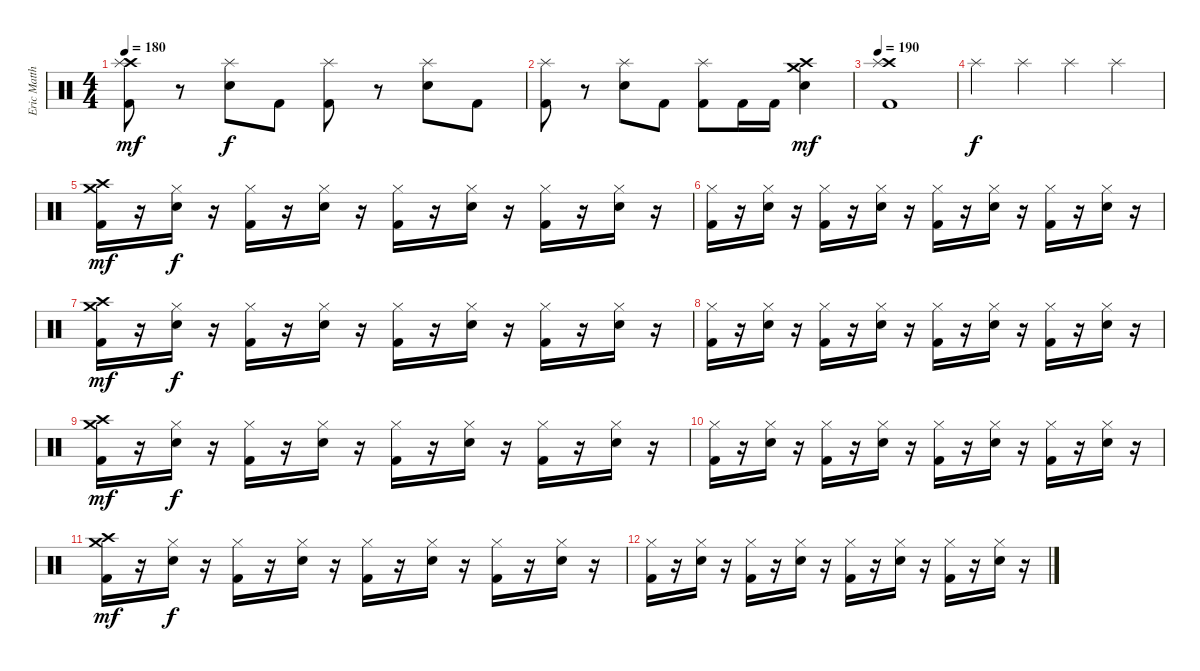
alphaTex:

\track ("Eric Matthews (drums)" "Eric Matth") {instrument percussion}
\staff {score}
\articulation defaults
\ts (4 4)
\tempo 180
\clef neutral
\ks c
("Crash high (hit)" "Splash (hit)" "Kick (hit) 2").8{dy mf} r.8 ("Splash (hit)" "Snare (hit) 2").8{dy f} "Kick (hit) 2".8 ("Splash (hit)" "Kick (hit) 2").8 r.8 ("Splash (hit)" "Snare (hit) 2").8 "Kick (hit) 2".8 |
("Splash (hit)" "Kick (hit) 2").8 r.8 ("Splash (hit)" "Snare (hit) 2").8 "Kick (hit) 2".8 ("Splash (hit)" "Kick (hit) 2").8 "Kick (hit) 2".16 "Kick (hit) 2".16 ("Crash medium (hit)" "Crash high (hit)" "Snare (hit) 2").4{dy mf} |
\tempo 190
("Crash high (hit)" "Splash (hit)" "Kick (hit) 2").1 |
"Splash (hit)".4{dy f} "Splash (hit)".4 "Splash (hit)".4 "Splash (hit)".4 |
("Crash high (hit)" "Crash medium (hit)" "Kick (hit) 2").16{dy mf} r.16 ("Hi-Hat (closed)" "Snare (hit) 2").16{dy f} r.16 ("Hi-Hat (closed)" "Kick (hit) 2").16 r.16 ("Hi-Hat (closed)" "Snare (hit) 2").16 r.16 ("Hi-Hat (closed)" "Kick (hit) 2").16 r.16 ("Hi-Hat (closed)" "Snare (hit) 2").16 r.16 ("Hi-Hat (closed)" "Kick (hit) 2").16 r.16 ("Hi-Hat (closed)" "Snare (hit) 2").16 r.16 |
("Hi-Hat (closed)" "Kick (hit) 2").16 r.16 ("Hi-Hat (closed)" "Snare (hit) 2").16 r.16 ("Hi-Hat (closed)" "Kick (hit) 2").16 r.16 ("Hi-Hat (closed)" "Snare (hit) 2").16 r.16 ("Hi-Hat (closed)" "Kick (hit) 2").16 r.16 ("Hi-Hat (closed)" "Snare (hit) 2").16 r.16 ("Hi-Hat (closed)" "Kick (hit) 2").16 r.16 ("Hi-Hat (closed)" "Snare (hit) 2").16 r.16 |
("Crash high (hit)" "Crash medium (hit)" "Kick (hit) 2").16{dy mf} r.16 ("Hi-Hat (closed)" "Snare (hit) 2").16{dy f} r.16 ("Hi-Hat (closed)" "Kick (hit) 2").16 r.16 ("Hi-Hat (closed)" "Snare (hit) 2").16 r.16 ("Hi-Hat (closed)" "Kick (hit) 2").16 r.16 ("Hi-Hat (closed)" "Snare (hit) 2").16 r.16 ("Hi-Hat (closed)" "Kick (hit) 2").16 r.16 ("Hi-Hat (closed)" "Snare (hit) 2").16 r.16 |
("Hi-Hat (closed)" "Kick (hit) 2").16 r.16 ("Hi-Hat (closed)" "Snare (hit) 2").16 r.16 ("Hi-Hat (closed)" "Kick (hit) 2").16 r.16 ("Hi-Hat (closed)" "Snare (hit) 2").16 r.16 ("Hi-Hat (closed)" "Kick (hit) 2").16 r.16 ("Hi-Hat (closed)" "Snare (hit) 2").16 r.16 ("Hi-Hat (closed)" "Kick (hit) 2").16 r.16 ("Hi-Hat (closed)" "Snare (hit) 2").16 r.16 |
("Crash high (hit)" "Crash medium (hit)" "Kick (hit) 2").16{dy mf} r.16 ("Hi-Hat (closed)" "Snare (hit) 2").16{dy f} r.16 ("Hi-Hat (closed)" "Kick (hit) 2").16 r.16 ("Hi-Hat (closed)" "Snare (hit) 2").16 r.16 ("Hi-Hat (closed)" "Kick (hit) 2").16 r.16 ("Hi-Hat (closed)" "Snare (hit) 2").16 r.16 ("Hi-Hat (closed)" "Kick (hit) 2").16 r.16 ("Hi-Hat (closed)" "Snare (hit) 2").16 r.16 |
("Hi-Hat (closed)" "Kick (hit) 2").16 r.16 ("Hi-Hat (closed)" "Snare (hit) 2").16 r.16 ("Hi-Hat (closed)" "Kick (hit) 2").16 r.16 ("Hi-Hat (closed)" "Snare (hit) 2").16 r.16 ("Hi-Hat (closed)" "Kick (hit) 2").16 r.16 ("Hi-Hat (closed)" "Snare (hit) 2").16 r.16 ("Hi-Hat (closed)" "Kick (hit) 2").16 r.16 ("Hi-Hat (closed)" "Snare (hit) 2").16 r.16 |
("Crash high (hit)" "Crash medium (hit)" "Kick (hit) 2").16{dy mf} r.16 ("Hi-Hat (closed)" "Snare (hit) 2").16{dy f} r.16 ("Hi-Hat (closed)" "Kick (hit) 2").16 r.16 ("Hi-Hat (closed)" "Snare (hit) 2").16 r.16 ("Hi-Hat (closed)" "Kick (hit) 2").16 r.16 ("Hi-Hat (closed)" "Snare (hit) 2").16 r.16 ("Hi-Hat (closed)" "Kick (hit) 2").16 r.16 ("Hi-Hat (closed)" "Snare (hit) 2").16 r.16 |
("Hi-Hat (closed)" "Kick (hit) 2").16 r.16 ("Hi-Hat (closed)" "Snare (hit) 2").16 r.16 ("Hi-Hat (closed)" "Kick (hit) 2").16 r.16 ("Hi-Hat (closed)" "Snare (hit) 2").16 r.16 ("Hi-Hat (closed)" "Kick (hit) 2").16 r.16 ("Hi-Hat (closed)" "Snare (hit) 2").16 r.16 ("Hi-Hat (closed)" "Kick (hit) 2").16 r.16 ("Hi-Hat (closed)" "Snare (hit) 2").16 r.16
